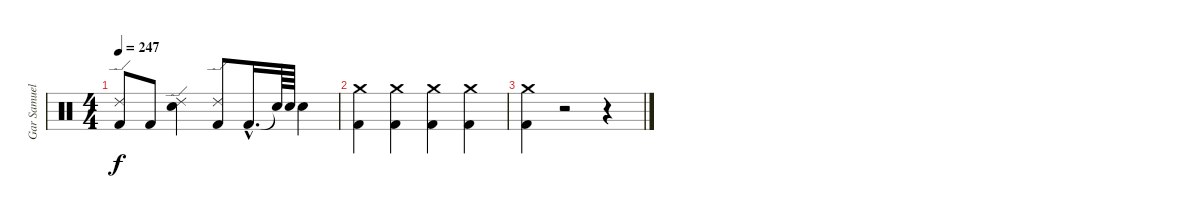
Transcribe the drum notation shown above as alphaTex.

\track ("Gar Samuelson (Drums)" "Gar Samuel") {instrument percussion}
\staff {score}
\articulation defaults
\ts (4 4)
\tempo 247
\clef neutral
\ks c
("Ride (edge) 2" "Kick (hit) 2").8{dy f} "Kick (hit) 2".8 ("Snare (hit) 2" "Ride (edge) 2").4 ("Ride (edge) 2" "Kick (hit) 2").8 "Kick (hit) 2"{hac}.16{d} "Snare (hit)"{t}.64 "Snare (hit) 2".64 "Snare (hit) 2".4 |
("Crash medium (hit)" "Kick (hit) 2").4 ("Crash medium (hit)" "Kick (hit) 2").4 ("Crash medium (hit)" "Kick (hit) 2").4 ("Crash medium (hit)" "Kick (hit) 2").4 |
("Crash medium (hit)" "Kick (hit) 2").4 r.2 r.4
